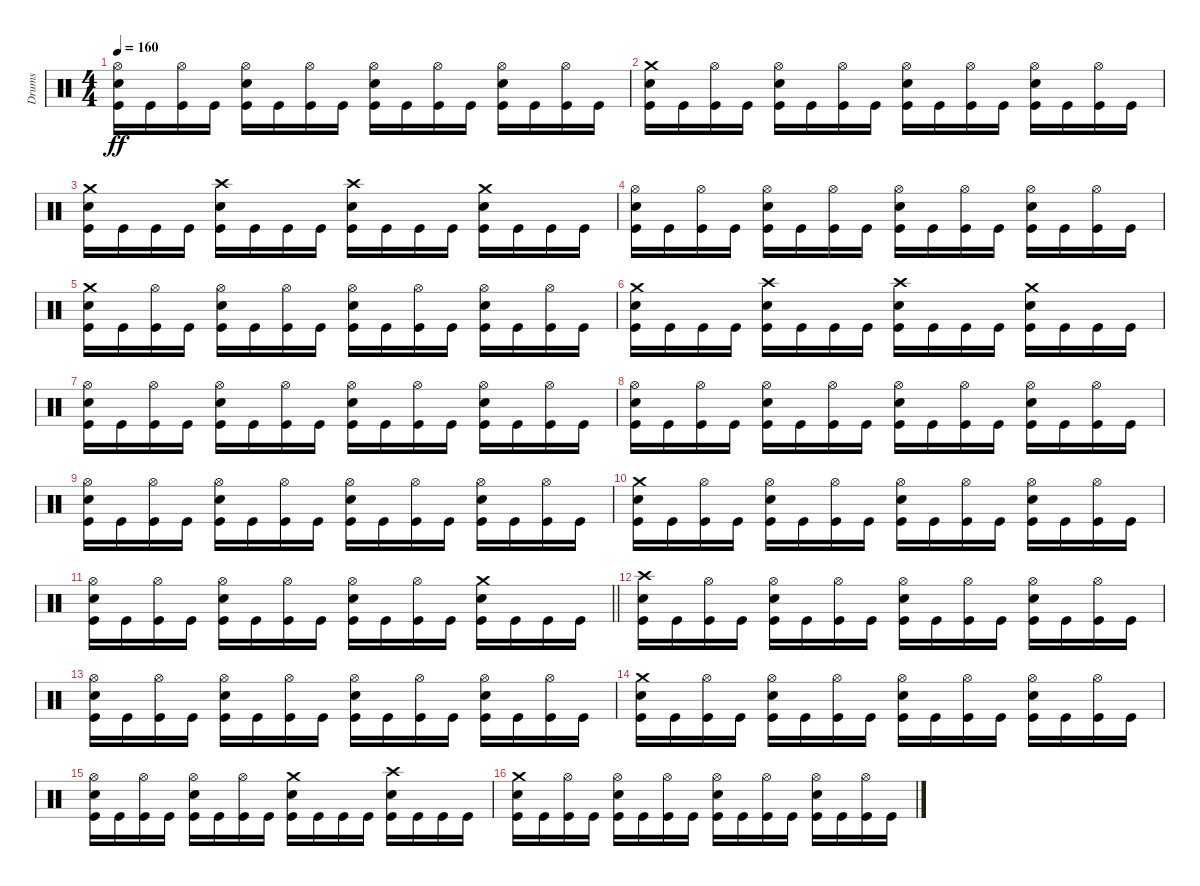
\track ("Drums" "Drums") {instrument percussion bank 127}
\staff {score}
\articulation defaults
\ts (4 4)
\tempo 160
\clef neutral
\ks c
("Hi-Hat (open)" "Snare (hit) 2" "Kick (hit)").16{dy ff} "Kick (hit)".16 ("Hi-Hat (open)" "Kick (hit)").16 "Kick (hit)".16 ("Hi-Hat (open)" "Snare (hit) 2" "Kick (hit)").16 "Kick (hit)".16 ("Hi-Hat (open)" "Kick (hit)").16 "Kick (hit)".16 ("Hi-Hat (open)" "Snare (hit) 2" "Kick (hit)").16 "Kick (hit)".16 ("Hi-Hat (open)" "Kick (hit)").16 "Kick (hit)".16 ("Hi-Hat (open)" "Snare (hit) 2" "Kick (hit)").16 "Kick (hit)".16 ("Hi-Hat (open)" "Kick (hit)").16 "Kick (hit)".16 |
("Crash medium (hit)" "Snare (hit) 2" "Kick (hit)").16 "Kick (hit)".16 ("Hi-Hat (open)" "Kick (hit)").16 "Kick (hit)".16 ("Hi-Hat (open)" "Snare (hit) 2" "Kick (hit)").16 "Kick (hit)".16 ("Hi-Hat (open)" "Kick (hit)").16 "Kick (hit)".16 ("Hi-Hat (open)" "Snare (hit) 2" "Kick (hit)").16 "Kick (hit)".16 ("Hi-Hat (open)" "Kick (hit)").16 "Kick (hit)".16 ("Hi-Hat (open)" "Snare (hit) 2" "Kick (hit)").16 "Kick (hit)".16 ("Hi-Hat (open)" "Kick (hit)").16 "Kick (hit)".16 |
("Crash medium (hit)" "Snare (hit) 2" "Kick (hit)").16 "Kick (hit)".16 "Kick (hit)".16 "Kick (hit)".16 ("Crash high (hit)" "Snare (hit) 2" "Kick (hit)").16 "Kick (hit)".16 "Kick (hit)".16 "Kick (hit)".16 ("Crash high (hit)" "Snare (hit) 2" "Kick (hit)").16 "Kick (hit)".16 "Kick (hit)".16 "Kick (hit)".16 ("Crash medium (hit)" "Snare (hit) 2" "Kick (hit)").16 "Kick (hit)".16 "Kick (hit)".16 "Kick (hit)".16 |
("Hi-Hat (open)" "Snare (hit) 2" "Kick (hit)").16 "Kick (hit)".16 ("Hi-Hat (open)" "Kick (hit)").16 "Kick (hit)".16 ("Hi-Hat (open)" "Snare (hit) 2" "Kick (hit)").16 "Kick (hit)".16 ("Hi-Hat (open)" "Kick (hit)").16 "Kick (hit)".16 ("Hi-Hat (open)" "Snare (hit) 2" "Kick (hit)").16 "Kick (hit)".16 ("Hi-Hat (open)" "Kick (hit)").16 "Kick (hit)".16 ("Hi-Hat (open)" "Snare (hit) 2" "Kick (hit)").16 "Kick (hit)".16 ("Hi-Hat (open)" "Kick (hit)").16 "Kick (hit)".16 |
("Crash medium (hit)" "Snare (hit) 2" "Kick (hit)").16 "Kick (hit)".16 ("Hi-Hat (open)" "Kick (hit)").16 "Kick (hit)".16 ("Hi-Hat (open)" "Snare (hit) 2" "Kick (hit)").16 "Kick (hit)".16 ("Hi-Hat (open)" "Kick (hit)").16 "Kick (hit)".16 ("Hi-Hat (open)" "Snare (hit) 2" "Kick (hit)").16 "Kick (hit)".16 ("Hi-Hat (open)" "Kick (hit)").16 "Kick (hit)".16 ("Hi-Hat (open)" "Snare (hit) 2" "Kick (hit)").16 "Kick (hit)".16 ("Hi-Hat (open)" "Kick (hit)").16 "Kick (hit)".16 |
("Crash medium (hit)" "Snare (hit) 2" "Kick (hit)").16 "Kick (hit)".16 "Kick (hit)".16 "Kick (hit)".16 ("Crash high (hit)" "Snare (hit) 2" "Kick (hit)").16 "Kick (hit)".16 "Kick (hit)".16 "Kick (hit)".16 ("Crash high (hit)" "Snare (hit) 2" "Kick (hit)").16 "Kick (hit)".16 "Kick (hit)".16 "Kick (hit)".16 ("Crash medium (hit)" "Snare (hit) 2" "Kick (hit)").16 "Kick (hit)".16 "Kick (hit)".16 "Kick (hit)".16 |
("Hi-Hat (open)" "Snare (hit) 2" "Kick (hit)").16 "Kick (hit)".16 ("Hi-Hat (open)" "Kick (hit)").16 "Kick (hit)".16 ("Hi-Hat (open)" "Snare (hit) 2" "Kick (hit)").16 "Kick (hit)".16 ("Hi-Hat (open)" "Kick (hit)").16 "Kick (hit)".16 ("Hi-Hat (open)" "Snare (hit) 2" "Kick (hit)").16 "Kick (hit)".16 ("Hi-Hat (open)" "Kick (hit)").16 "Kick (hit)".16 ("Hi-Hat (open)" "Snare (hit) 2" "Kick (hit)").16 "Kick (hit)".16 ("Hi-Hat (open)" "Kick (hit)").16 "Kick (hit)".16 |
("Hi-Hat (open)" "Snare (hit) 2" "Kick (hit)").16 "Kick (hit)".16 ("Hi-Hat (open)" "Kick (hit)").16 "Kick (hit)".16 ("Hi-Hat (open)" "Snare (hit) 2" "Kick (hit)").16 "Kick (hit)".16 ("Hi-Hat (open)" "Kick (hit)").16 "Kick (hit)".16 ("Hi-Hat (open)" "Snare (hit) 2" "Kick (hit)").16 "Kick (hit)".16 ("Hi-Hat (open)" "Kick (hit)").16 "Kick (hit)".16 ("Hi-Hat (open)" "Snare (hit) 2" "Kick (hit)").16 "Kick (hit)".16 ("Hi-Hat (open)" "Kick (hit)").16 "Kick (hit)".16 |
("Hi-Hat (open)" "Snare (hit) 2" "Kick (hit)").16 "Kick (hit)".16 ("Hi-Hat (open)" "Kick (hit)").16 "Kick (hit)".16 ("Hi-Hat (open)" "Snare (hit) 2" "Kick (hit)").16 "Kick (hit)".16 ("Hi-Hat (open)" "Kick (hit)").16 "Kick (hit)".16 ("Hi-Hat (open)" "Snare (hit) 2" "Kick (hit)").16 "Kick (hit)".16 ("Hi-Hat (open)" "Kick (hit)").16 "Kick (hit)".16 ("Hi-Hat (open)" "Snare (hit) 2" "Kick (hit)").16 "Kick (hit)".16 ("Hi-Hat (open)" "Kick (hit)").16 "Kick (hit)".16 |
("Crash medium (hit)" "Snare (hit) 2" "Kick (hit)").16 "Kick (hit)".16 ("Hi-Hat (open)" "Kick (hit)").16 "Kick (hit)".16 ("Hi-Hat (open)" "Snare (hit) 2" "Kick (hit)").16 "Kick (hit)".16 ("Hi-Hat (open)" "Kick (hit)").16 "Kick (hit)".16 ("Hi-Hat (open)" "Snare (hit) 2" "Kick (hit)").16 "Kick (hit)".16 ("Hi-Hat (open)" "Kick (hit)").16 "Kick (hit)".16 ("Hi-Hat (open)" "Snare (hit) 2" "Kick (hit)").16 "Kick (hit)".16 ("Hi-Hat (open)" "Kick (hit)").16 "Kick (hit)".16 |
\barLineRight lightlight
("Hi-Hat (open)" "Snare (hit) 2" "Kick (hit)").16 "Kick (hit)".16 ("Hi-Hat (open)" "Kick (hit)").16 "Kick (hit)".16 ("Hi-Hat (open)" "Snare (hit) 2" "Kick (hit)").16 "Kick (hit)".16 ("Hi-Hat (open)" "Kick (hit)").16 "Kick (hit)".16 ("Hi-Hat (open)" "Snare (hit) 2" "Kick (hit)").16 "Kick (hit)".16 ("Hi-Hat (open)" "Kick (hit)").16 "Kick (hit)".16 ("Crash medium (hit)" "Snare (hit) 2" "Kick (hit)").16 "Kick (hit)".16 "Kick (hit)".16 "Kick (hit)".16 |
("Crash high (hit)" "Snare (hit) 2" "Kick (hit)").16 "Kick (hit)".16 ("Hi-Hat (open)" "Kick (hit)").16 "Kick (hit)".16 ("Hi-Hat (open)" "Snare (hit) 2" "Kick (hit)").16 "Kick (hit)".16 ("Hi-Hat (open)" "Kick (hit)").16 "Kick (hit)".16 ("Hi-Hat (open)" "Snare (hit) 2" "Kick (hit)").16 "Kick (hit)".16 ("Hi-Hat (open)" "Kick (hit)").16 "Kick (hit)".16 ("Hi-Hat (open)" "Snare (hit) 2" "Kick (hit)").16 "Kick (hit)".16 ("Hi-Hat (open)" "Kick (hit)").16 "Kick (hit)".16 |
("Hi-Hat (open)" "Snare (hit) 2" "Kick (hit)").16 "Kick (hit)".16 ("Hi-Hat (open)" "Kick (hit)").16 "Kick (hit)".16 ("Hi-Hat (open)" "Snare (hit) 2" "Kick (hit)").16 "Kick (hit)".16 ("Hi-Hat (open)" "Kick (hit)").16 "Kick (hit)".16 ("Hi-Hat (open)" "Snare (hit) 2" "Kick (hit)").16 "Kick (hit)".16 ("Hi-Hat (open)" "Kick (hit)").16 "Kick (hit)".16 ("Hi-Hat (open)" "Snare (hit) 2" "Kick (hit)").16 "Kick (hit)".16 ("Hi-Hat (open)" "Kick (hit)").16 "Kick (hit)".16 |
("Crash medium (hit)" "Snare (hit) 2" "Kick (hit)").16 "Kick (hit)".16 ("Hi-Hat (open)" "Kick (hit)").16 "Kick (hit)".16 ("Hi-Hat (open)" "Snare (hit) 2" "Kick (hit)").16 "Kick (hit)".16 ("Hi-Hat (open)" "Kick (hit)").16 "Kick (hit)".16 ("Hi-Hat (open)" "Snare (hit) 2" "Kick (hit)").16 "Kick (hit)".16 ("Hi-Hat (open)" "Kick (hit)").16 "Kick (hit)".16 ("Hi-Hat (open)" "Snare (hit) 2" "Kick (hit)").16 "Kick (hit)".16 ("Hi-Hat (open)" "Kick (hit)").16 "Kick (hit)".16 |
("Hi-Hat (open)" "Snare (hit) 2" "Kick (hit)").16 "Kick (hit)".16 ("Hi-Hat (open)" "Kick (hit)").16 "Kick (hit)".16 ("Hi-Hat (open)" "Snare (hit) 2" "Kick (hit)").16 "Kick (hit)".16 ("Hi-Hat (open)" "Kick (hit)").16 "Kick (hit)".16 ("Crash medium (hit)" "Snare (hit) 2" "Kick (hit)").16 "Kick (hit)".16 "Kick (hit)".16 "Kick (hit)".16 ("Crash high (hit)" "Snare (hit) 2" "Kick (hit)").16 "Kick (hit)".16 "Kick (hit)".16 "Kick (hit)".16 |
("Crash medium (hit)" "Snare (hit) 2" "Kick (hit)").16 "Kick (hit)".16 ("Hi-Hat (open)" "Kick (hit)").16 "Kick (hit)".16 ("Hi-Hat (open)" "Snare (hit) 2" "Kick (hit)").16 "Kick (hit)".16 ("Hi-Hat (open)" "Kick (hit)").16 "Kick (hit)".16 ("Hi-Hat (open)" "Snare (hit) 2" "Kick (hit)").16 "Kick (hit)".16 ("Hi-Hat (open)" "Kick (hit)").16 "Kick (hit)".16 ("Hi-Hat (open)" "Snare (hit) 2" "Kick (hit)").16 "Kick (hit)".16 ("Hi-Hat (open)" "Kick (hit)").16 "Kick (hit)".16
